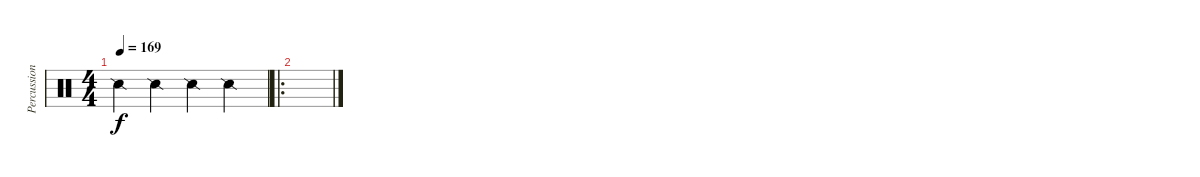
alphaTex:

\track ("Percussions" "Percussion") {instrument percussion}
\staff {score}
\articulation defaults
\ts (4 4)
\tempo 169
\clef neutral
\ks c "Snare (side stick) 2".4{dy f} "Snare (side stick) 2".4 "Snare (side stick) 2".4 "Snare (side stick) 2".4
|
\ro
